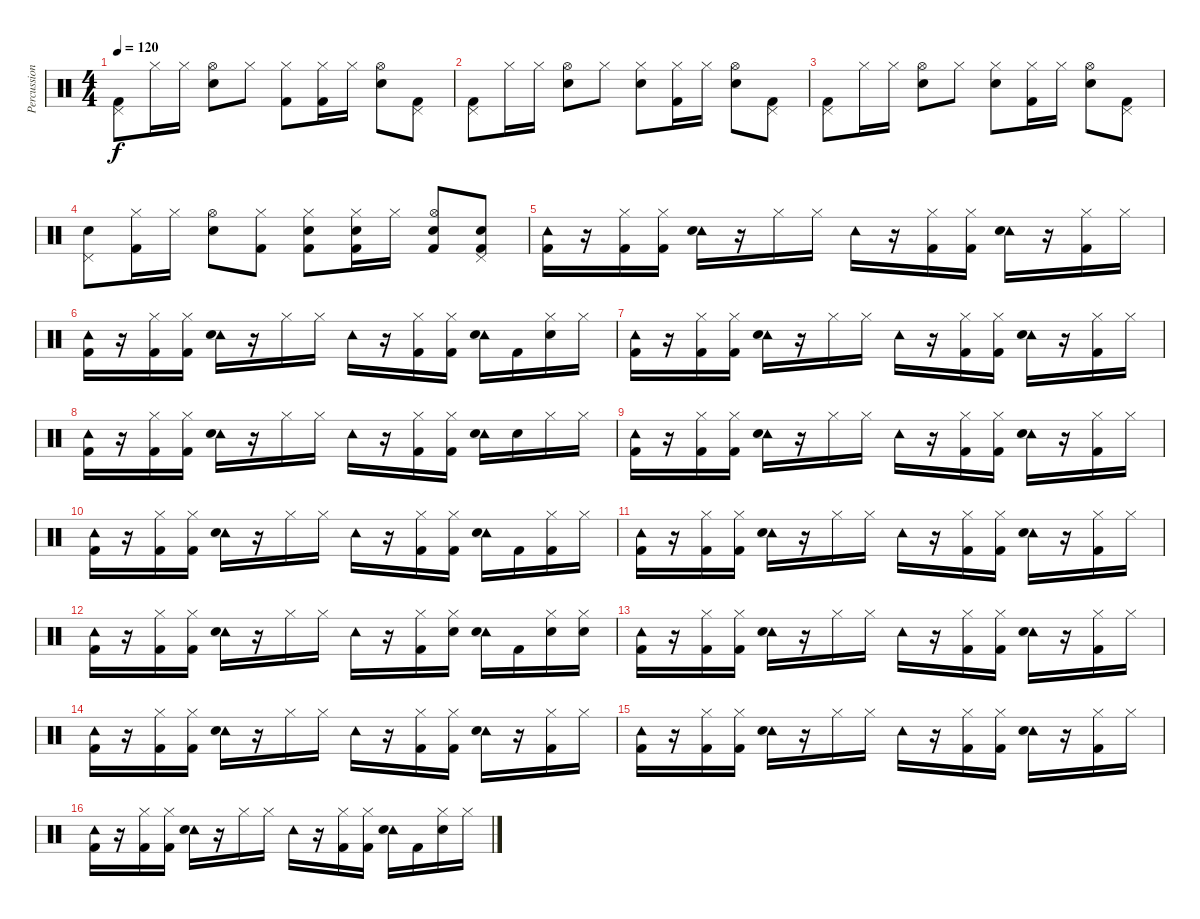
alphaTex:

\track ("Percussion" "Percussion") {instrument percussion}
\staff {score}
\articulation defaults
\ts (4 4)
\tempo 120
\clef neutral
\ks c
("Pedal Hi-Hat (hit)" "Kick (hit) 2").8{dy f} "Hi-Hat (closed)".16 "Hi-Hat (closed)".16 ("Hi-Hat (open)" "Electric Snare (hit)").8 "Hi-Hat (closed)".8 ("Hi-Hat (closed)" "Kick (hit) 2").8 ("Hi-Hat (closed)" "Kick (hit) 2").16 "Hi-Hat (closed)".16 ("Hi-Hat (open)" "Electric Snare (hit)").8 ("Pedal Hi-Hat (hit)" "Kick (hit) 2").8 |
("Pedal Hi-Hat (hit)" "Kick (hit) 2").8 "Hi-Hat (closed)".16 "Hi-Hat (closed)".16 ("Hi-Hat (open)" "Electric Snare (hit)").8 "Hi-Hat (closed)".8 ("Hi-Hat (closed)" "Electric Snare (hit)").8 ("Hi-Hat (closed)" "Kick (hit) 2").16 "Hi-Hat (closed)".16 ("Hi-Hat (open)" "Electric Snare (hit)").8 ("Pedal Hi-Hat (hit)" "Kick (hit) 2").8 |
("Pedal Hi-Hat (hit)" "Kick (hit) 2").8 "Hi-Hat (closed)".16 "Hi-Hat (closed)".16 ("Hi-Hat (open)" "Electric Snare (hit)").8 "Hi-Hat (closed)".8 ("Hi-Hat (closed)" "Electric Snare (hit)").8 ("Hi-Hat (closed)" "Kick (hit) 2").16 "Hi-Hat (closed)".16 ("Hi-Hat (open)" "Electric Snare (hit)").8 ("Pedal Hi-Hat (hit)" "Kick (hit) 2").8 |
("Pedal Hi-Hat (hit)" "Electric Snare (hit)").8 ("Hi-Hat (closed)" "Kick (hit) 2").16 "Hi-Hat (closed)".16 ("Hi-Hat (open)" "Electric Snare (hit)").8 ("Hi-Hat (closed)" "Kick (hit) 2").8 ("Hi-Hat (closed)" "Electric Snare (hit)" "Kick (hit) 2").8 ("Hi-Hat (closed)" "Electric Snare (hit)" "Kick (hit) 2").16 "Hi-Hat (closed)".16 ("Hi-Hat (open)" "Electric Snare (hit)" "Kick (hit) 2").8 ("Pedal Hi-Hat (hit)" "Electric Snare (hit)" "Kick (hit) 2").8 |
("Tambourine (hit)" "Kick (hit) 2").16 r.16 ("Hi-Hat (closed)" "Kick (hit) 2").16 ("Hi-Hat (closed)" "Kick (hit) 2").16 ("Tambourine (hit)" "Electric Snare (hit)").16 r.16 "Hi-Hat (closed)".16 "Hi-Hat (closed)".16 "Tambourine (hit)".16 r.16 ("Hi-Hat (closed)" "Kick (hit) 2").16 ("Hi-Hat (closed)" "Kick (hit) 2").16 ("Tambourine (hit)" "Electric Snare (hit)").16 r.16 ("Hi-Hat (closed)" "Kick (hit) 2").16 "Hi-Hat (closed)".16 |
("Tambourine (hit)" "Kick (hit) 2").16 r.16 ("Hi-Hat (closed)" "Kick (hit) 2").16 ("Hi-Hat (closed)" "Kick (hit) 2").16 ("Tambourine (hit)" "Electric Snare (hit)").16 r.16 "Hi-Hat (closed)".16 "Hi-Hat (closed)".16 "Tambourine (hit)".16 r.16 ("Hi-Hat (closed)" "Kick (hit) 2").16 ("Hi-Hat (closed)" "Kick (hit) 2").16 ("Tambourine (hit)" "Electric Snare (hit)").16 "Kick (hit) 2".16 ("Hi-Hat (closed)" "Electric Snare (hit)").16 "Hi-Hat (closed)".16 |
("Tambourine (hit)" "Kick (hit) 2").16 r.16 ("Hi-Hat (closed)" "Kick (hit) 2").16 ("Hi-Hat (closed)" "Kick (hit) 2").16 ("Tambourine (hit)" "Electric Snare (hit)").16 r.16 "Hi-Hat (closed)".16 "Hi-Hat (closed)".16 "Tambourine (hit)".16 r.16 ("Hi-Hat (closed)" "Kick (hit) 2").16 ("Hi-Hat (closed)" "Kick (hit) 2").16 ("Tambourine (hit)" "Electric Snare (hit)").16 r.16 ("Hi-Hat (closed)" "Kick (hit) 2").16 "Hi-Hat (closed)".16 |
("Tambourine (hit)" "Kick (hit) 2").16 r.16 ("Hi-Hat (closed)" "Kick (hit) 2").16 ("Hi-Hat (closed)" "Kick (hit) 2").16 ("Tambourine (hit)" "Electric Snare (hit)").16 r.16 "Hi-Hat (closed)".16 "Hi-Hat (closed)".16 "Tambourine (hit)".16 r.16 ("Hi-Hat (closed)" "Kick (hit) 2").16 ("Hi-Hat (closed)" "Kick (hit) 2").16 ("Tambourine (hit)" "Electric Snare (hit)").16 "Electric Snare (hit)".16 "Hi-Hat (closed)".16 "Hi-Hat (closed)".16 |
("Tambourine (hit)" "Kick (hit) 2").16 r.16 ("Hi-Hat (closed)" "Kick (hit) 2").16 ("Hi-Hat (closed)" "Kick (hit) 2").16 ("Tambourine (hit)" "Electric Snare (hit)").16 r.16 "Hi-Hat (closed)".16 "Hi-Hat (closed)".16 "Tambourine (hit)".16 r.16 ("Hi-Hat (closed)" "Kick (hit) 2").16 ("Hi-Hat (closed)" "Kick (hit) 2").16 ("Tambourine (hit)" "Electric Snare (hit)").16 r.16 ("Hi-Hat (closed)" "Kick (hit) 2").16 "Hi-Hat (closed)".16 |
("Tambourine (hit)" "Kick (hit) 2").16 r.16 ("Hi-Hat (closed)" "Kick (hit) 2").16 ("Hi-Hat (closed)" "Kick (hit) 2").16 ("Tambourine (hit)" "Electric Snare (hit)").16 r.16 "Hi-Hat (closed)".16 "Hi-Hat (closed)".16 "Tambourine (hit)".16 r.16 ("Hi-Hat (closed)" "Kick (hit) 2").16 ("Hi-Hat (closed)" "Kick (hit) 2").16 ("Tambourine (hit)" "Electric Snare (hit)").16 "Kick (hit) 2".16 ("Hi-Hat (closed)" "Kick (hit) 2").16 "Hi-Hat (closed)".16 |
("Tambourine (hit)" "Kick (hit) 2").16 r.16 ("Hi-Hat (closed)" "Kick (hit) 2").16 ("Hi-Hat (closed)" "Kick (hit) 2").16 ("Tambourine (hit)" "Electric Snare (hit)").16 r.16 "Hi-Hat (closed)".16 "Hi-Hat (closed)".16 "Tambourine (hit)".16 r.16 ("Hi-Hat (closed)" "Kick (hit) 2").16 ("Hi-Hat (closed)" "Kick (hit) 2").16 ("Tambourine (hit)" "Electric Snare (hit)").16 r.16 ("Hi-Hat (closed)" "Kick (hit) 2").16 "Hi-Hat (closed)".16 |
("Tambourine (hit)" "Kick (hit) 2").16 r.16 ("Hi-Hat (closed)" "Kick (hit) 2").16 ("Hi-Hat (closed)" "Kick (hit) 2").16 ("Tambourine (hit)" "Electric Snare (hit)").16 r.16 "Hi-Hat (closed)".16 "Hi-Hat (closed)".16 "Tambourine (hit)".16 r.16 ("Hi-Hat (closed)" "Kick (hit) 2").16 ("Hi-Hat (closed)" "Electric Snare (hit)").16 ("Tambourine (hit)" "Electric Snare (hit)").16 "Kick (hit) 2".16 ("Hi-Hat (closed)" "Electric Snare (hit)").16 ("Hi-Hat (closed)" "Electric Snare (hit)").16 |
("Tambourine (hit)" "Kick (hit) 2").16 r.16 ("Hi-Hat (closed)" "Kick (hit) 2").16 ("Hi-Hat (closed)" "Kick (hit) 2").16 ("Tambourine (hit)" "Electric Snare (hit)").16 r.16 "Hi-Hat (closed)".16 "Hi-Hat (closed)".16 "Tambourine (hit)".16 r.16 ("Hi-Hat (closed)" "Kick (hit) 2").16 ("Hi-Hat (closed)" "Kick (hit) 2").16 ("Tambourine (hit)" "Electric Snare (hit)").16 r.16 ("Hi-Hat (closed)" "Kick (hit) 2").16 "Hi-Hat (closed)".16 |
("Tambourine (hit)" "Kick (hit) 2").16 r.16 ("Hi-Hat (closed)" "Kick (hit) 2").16 ("Hi-Hat (closed)" "Kick (hit) 2").16 ("Tambourine (hit)" "Electric Snare (hit)").16 r.16 "Hi-Hat (closed)".16 "Hi-Hat (closed)".16 "Tambourine (hit)".16 r.16 ("Hi-Hat (closed)" "Kick (hit) 2").16 ("Hi-Hat (closed)" "Kick (hit) 2").16 ("Tambourine (hit)" "Electric Snare (hit)").16 r.16 ("Hi-Hat (closed)" "Kick (hit) 2").16 "Hi-Hat (closed)".16 |
("Tambourine (hit)" "Kick (hit) 2").16 r.16 ("Hi-Hat (closed)" "Kick (hit) 2").16 ("Hi-Hat (closed)" "Kick (hit) 2").16 ("Tambourine (hit)" "Electric Snare (hit)").16 r.16 "Hi-Hat (closed)".16 "Hi-Hat (closed)".16 "Tambourine (hit)".16 r.16 ("Hi-Hat (closed)" "Kick (hit) 2").16 ("Hi-Hat (closed)" "Kick (hit) 2").16 ("Tambourine (hit)" "Electric Snare (hit)").16 r.16 ("Hi-Hat (closed)" "Kick (hit) 2").16 "Hi-Hat (closed)".16 |
("Tambourine (hit)" "Kick (hit) 2").16 r.16 ("Hi-Hat (closed)" "Kick (hit) 2").16 ("Hi-Hat (closed)" "Kick (hit) 2").16 ("Tambourine (hit)" "Electric Snare (hit)").16 r.16 "Hi-Hat (closed)".16 "Hi-Hat (closed)".16 "Tambourine (hit)".16 r.16 ("Hi-Hat (closed)" "Kick (hit) 2").16 ("Hi-Hat (closed)" "Kick (hit) 2").16 ("Tambourine (hit)" "Electric Snare (hit)").16 "Kick (hit) 2".16 ("Hi-Hat (closed)" "Electric Snare (hit)").16 "Hi-Hat (closed)".16
